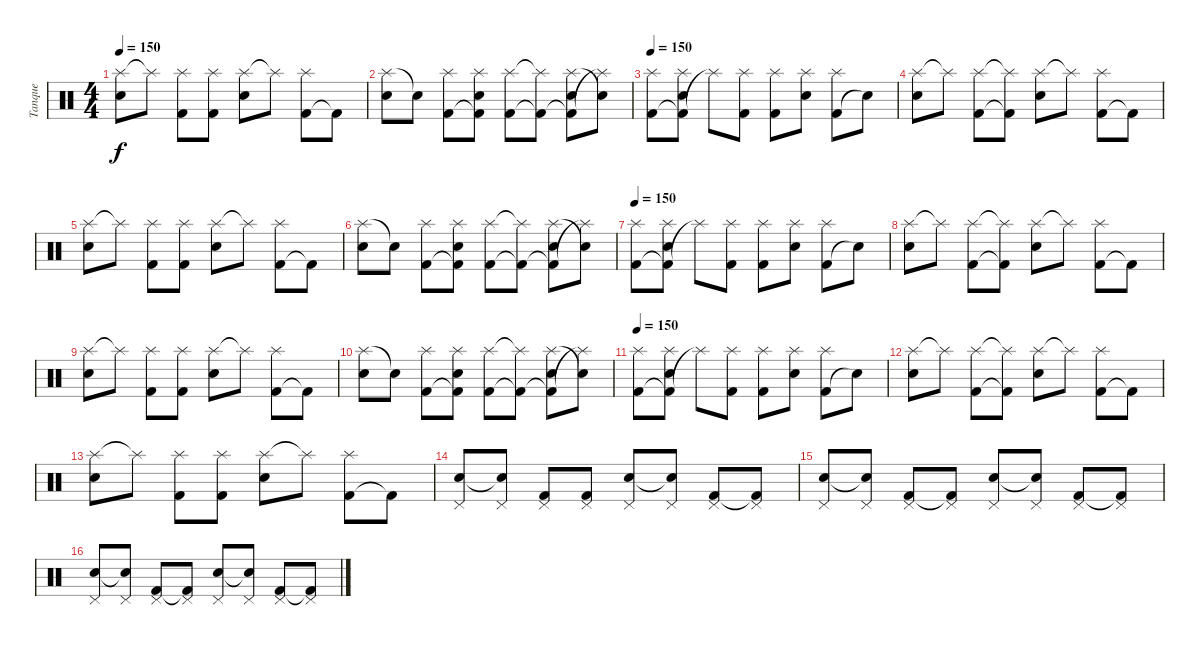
\track ("Tanque" "Tanque") {instrument percussion}
\staff {score}
\articulation defaults
\ts (4 4)
\tempo 150
\clef neutral
\ks c
("Splash (hit)" "Snare (hit) 2").8{dy f} "Splash (hit)"{t}.8 ("Kick (hit) 2" "Splash (hit)").8 ("Kick (hit) 2" "Splash (hit)").8 ("Splash (hit)" "Snare (hit) 2").8 "Splash (hit)"{t}.8 ("Kick (hit) 2" "Splash (hit)").8 "Kick (hit) 2"{t}.8 |
("Splash (hit)" "Snare (hit) 2").8 "Snare (hit)"{t}.8 ("Kick (hit) 2" "Splash (hit)").8 ("Kick (hit) 2"{t} "Splash (hit)" "Snare (hit) 2").8 ("Kick (hit) 2" "Splash (hit)").8 ("Kick (hit) 2"{t} "Splash (hit)"{t}).8 ("Kick (hit) 2"{t} "Splash (hit)" "Snare (hit) 2").8 ("Splash (hit)"{t} "Snare (hit) 2"{t}).8 |
\tempo 150
("Kick (hit) 2" "Splash (hit)").8 ("Kick (hit) 2"{t} "Splash (hit)" "Snare (hit) 2").8 "Splash (hit)"{t}.8 ("Kick (hit) 2" "Splash (hit)").8 ("Kick (hit) 2" "Splash (hit)").8 ("Splash (hit)" "Snare (hit) 2").8 ("Kick (hit) 2" "Splash (hit)").8 "Snare (hit)"{t}.8 |
("Splash (hit)" "Snare (hit) 2").8 "Splash (hit)"{t}.8 ("Kick (hit) 2" "Splash (hit)").8 ("Kick (hit) 2"{t} "Splash (hit)"{t}).8 ("Splash (hit)" "Snare (hit) 2").8 "Splash (hit)"{t}.8 ("Kick (hit) 2" "Splash (hit)").8 "Kick (hit) 2"{t}.8 |
("Splash (hit)" "Snare (hit) 2").8 "Splash (hit)"{t}.8 ("Kick (hit) 2" "Splash (hit)").8 ("Kick (hit) 2" "Splash (hit)").8 ("Splash (hit)" "Snare (hit) 2").8 "Splash (hit)"{t}.8 ("Kick (hit) 2" "Splash (hit)").8 "Kick (hit) 2"{t}.8 |
("Splash (hit)" "Snare (hit) 2").8 "Snare (hit)"{t}.8 ("Kick (hit) 2" "Splash (hit)").8 ("Kick (hit) 2"{t} "Splash (hit)" "Snare (hit) 2").8 ("Kick (hit) 2" "Splash (hit)").8 ("Kick (hit) 2"{t} "Splash (hit)"{t}).8 ("Kick (hit) 2"{t} "Splash (hit)" "Snare (hit) 2").8 ("Splash (hit)"{t} "Snare (hit) 2"{t}).8 |
\tempo 150
("Kick (hit) 2" "Splash (hit)").8 ("Kick (hit) 2"{t} "Splash (hit)" "Snare (hit) 2").8 "Splash (hit)"{t}.8 ("Kick (hit) 2" "Splash (hit)").8 ("Kick (hit) 2" "Splash (hit)").8 ("Splash (hit)" "Snare (hit) 2").8 ("Kick (hit) 2" "Splash (hit)").8 "Snare (hit)"{t}.8 |
("Splash (hit)" "Snare (hit) 2").8 "Splash (hit)"{t}.8 ("Kick (hit) 2" "Splash (hit)").8 ("Kick (hit) 2"{t} "Splash (hit)"{t}).8 ("Splash (hit)" "Snare (hit) 2").8 "Splash (hit)"{t}.8 ("Kick (hit) 2" "Splash (hit)").8 "Kick (hit) 2"{t}.8 |
("Splash (hit)" "Snare (hit) 2").8 "Splash (hit)"{t}.8 ("Kick (hit) 2" "Splash (hit)").8 ("Kick (hit) 2" "Splash (hit)").8 ("Splash (hit)" "Snare (hit) 2").8 "Splash (hit)"{t}.8 ("Kick (hit) 2" "Splash (hit)").8 "Kick (hit) 2"{t}.8 |
("Splash (hit)" "Snare (hit) 2").8 "Snare (hit)"{t}.8 ("Kick (hit) 2" "Splash (hit)").8 ("Kick (hit) 2"{t} "Splash (hit)" "Snare (hit) 2").8 ("Kick (hit) 2" "Splash (hit)").8 ("Kick (hit) 2"{t} "Splash (hit)"{t}).8 ("Kick (hit) 2"{t} "Splash (hit)" "Snare (hit) 2").8 ("Splash (hit)"{t} "Snare (hit) 2"{t}).8 |
\tempo 150
("Kick (hit) 2" "Splash (hit)").8 ("Kick (hit) 2"{t} "Splash (hit)" "Snare (hit) 2").8 "Splash (hit)"{t}.8 ("Kick (hit) 2" "Splash (hit)").8 ("Kick (hit) 2" "Splash (hit)").8 ("Splash (hit)" "Snare (hit) 2").8 ("Kick (hit) 2" "Splash (hit)").8 "Snare (hit)"{t}.8 |
("Splash (hit)" "Snare (hit) 2").8 "Splash (hit)"{t}.8 ("Kick (hit) 2" "Splash (hit)").8 ("Kick (hit) 2"{t} "Splash (hit)"{t}).8 ("Splash (hit)" "Snare (hit) 2").8 "Splash (hit)"{t}.8 ("Kick (hit) 2" "Splash (hit)").8 "Kick (hit) 2"{t}.8 |
("Splash (hit)" "Snare (hit) 2").8 "Splash (hit)"{t}.8 ("Kick (hit) 2" "Splash (hit)").8 ("Kick (hit) 2" "Splash (hit)").8 ("Splash (hit)" "Snare (hit) 2").8 "Splash (hit)"{t}.8 ("Kick (hit) 2" "Splash (hit)").8 "Kick (hit) 2"{t}.8 |
("Pedal Hi-Hat (hit)" "Snare (hit) 2").8 ("Pedal Hi-Hat (hit)" "Snare (hit)"{t}).8 ("Pedal Hi-Hat (hit)" "Kick (hit) 2").8 ("Pedal Hi-Hat (hit)" "Kick (hit) 2").8 ("Pedal Hi-Hat (hit)" "Snare (hit) 2").8 ("Pedal Hi-Hat (hit)" "Snare (hit) 2"{t}).8 ("Pedal Hi-Hat (hit)" "Kick (hit) 2").8 ("Pedal Hi-Hat (hit)" "Kick (hit) 2"{t}).8 |
("Pedal Hi-Hat (hit)" "Snare (hit) 2").8 ("Pedal Hi-Hat (hit)" "Snare (hit)"{t}).8 ("Pedal Hi-Hat (hit)" "Kick (hit) 2").8 ("Pedal Hi-Hat (hit)" "Kick (hit) 2"{t}).8 ("Pedal Hi-Hat (hit)" "Snare (hit) 2").8 ("Pedal Hi-Hat (hit)" "Snare (hit) 2"{t}).8 ("Pedal Hi-Hat (hit)" "Kick (hit) 2").8 ("Pedal Hi-Hat (hit)" "Kick (hit) 2"{t}).8 |
("Pedal Hi-Hat (hit)" "Snare (hit) 2").8 ("Pedal Hi-Hat (hit)" "Snare (hit)"{t}).8 ("Pedal Hi-Hat (hit)" "Kick (hit) 2").8 ("Pedal Hi-Hat (hit)" "Kick (hit) 2"{t}).8 ("Pedal Hi-Hat (hit)" "Snare (hit) 2").8 ("Pedal Hi-Hat (hit)" "Snare (hit) 2"{t}).8 ("Pedal Hi-Hat (hit)" "Kick (hit) 2").8 ("Pedal Hi-Hat (hit)" "Kick (hit) 2"{t}).8
